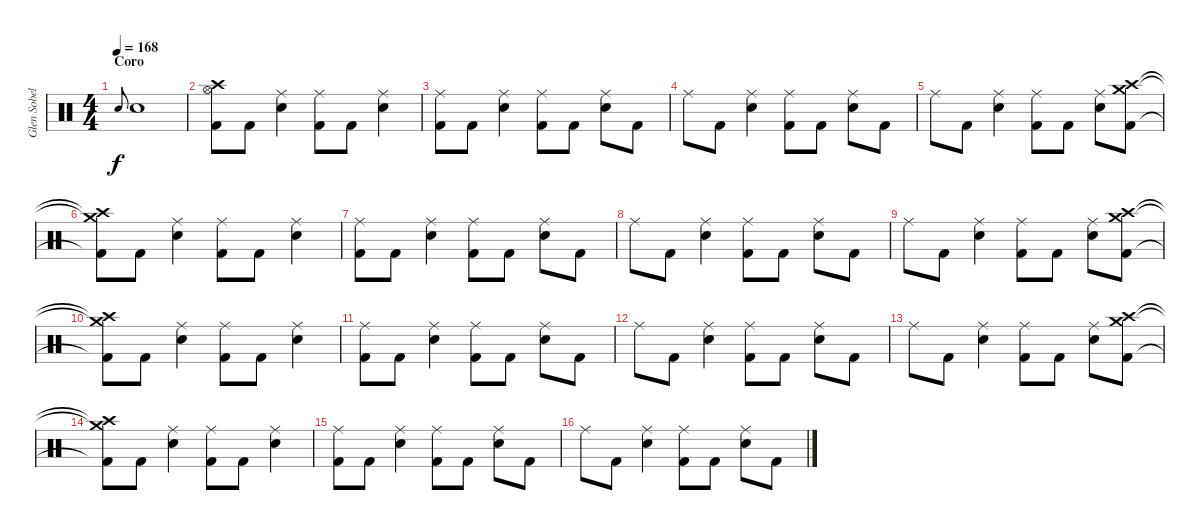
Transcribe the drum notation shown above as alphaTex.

\track ("Glen Sobel" "Glen Sobel") {instrument percussion}
\staff {score}
\articulation defaults
\ts (4 4)
\section ("" "Coro")
\tempo 168
\clef neutral
\ks c "Snare (hit) 2".8{gr onbeat dy f} "Snare (hit) 2".1
|
("Hi-Hat (open)" "Crash high (hit)" "Kick (hit) 2").8 "Kick (hit) 2".8 ("Ride (middle)" "Snare (hit) 2").4 ("Ride (middle)" "Kick (hit) 2").8 "Kick (hit) 2".8 ("Ride (middle)" "Snare (hit) 2").4 |
("Ride (middle)" "Kick (hit) 2").8 "Kick (hit) 2".8 ("Ride (middle)" "Snare (hit) 2").4 ("Ride (middle)" "Kick (hit) 2").8 "Kick (hit) 2".8 ("Ride (middle)" "Snare (hit) 2").8 "Kick (hit) 2".8 |
"Ride (middle)".8 "Kick (hit) 2".8 ("Ride (middle)" "Snare (hit) 2").4 ("Ride (middle)" "Kick (hit) 2").8 "Kick (hit) 2".8 ("Ride (middle)" "Snare (hit) 2").8 "Kick (hit) 2".8 |
"Ride (middle)".8 "Kick (hit) 2".8 ("Ride (middle)" "Snare (hit) 2").4 ("Ride (middle)" "Kick (hit) 2").8 "Kick (hit) 2".8 ("Ride (middle)" "Snare (hit) 2").8 ("Crash medium (hit)" "Crash high (hit)" "Kick (hit) 2").8 |
("Crash medium (hit)"{t} "Crash high (hit)"{t} "Kick (hit) 2"{t}).8 "Kick (hit) 2".8 ("Ride (middle)" "Snare (hit) 2").4 ("Ride (middle)" "Kick (hit) 2").8 "Kick (hit) 2".8 ("Ride (middle)" "Snare (hit) 2").4 |
("Ride (middle)" "Kick (hit) 2").8 "Kick (hit) 2".8 ("Ride (middle)" "Snare (hit) 2").4 ("Ride (middle)" "Kick (hit) 2").8 "Kick (hit) 2".8 ("Ride (middle)" "Snare (hit) 2").8 "Kick (hit) 2".8 |
"Ride (middle)".8 "Kick (hit) 2".8 ("Ride (middle)" "Snare (hit) 2").4 ("Ride (middle)" "Kick (hit) 2").8 "Kick (hit) 2".8 ("Ride (middle)" "Snare (hit) 2").8 "Kick (hit) 2".8 |
"Ride (middle)".8 "Kick (hit) 2".8 ("Ride (middle)" "Snare (hit) 2").4 ("Ride (middle)" "Kick (hit) 2").8 "Kick (hit) 2".8 ("Ride (middle)" "Snare (hit) 2").8 ("Crash medium (hit)" "Crash high (hit)" "Kick (hit) 2").8 |
("Crash medium (hit)"{t} "Crash high (hit)"{t} "Kick (hit) 2"{t}).8 "Kick (hit) 2".8 ("Ride (middle)" "Snare (hit) 2").4 ("Ride (middle)" "Kick (hit) 2").8 "Kick (hit) 2".8 ("Ride (middle)" "Snare (hit) 2").4 |
("Ride (middle)" "Kick (hit) 2").8 "Kick (hit) 2".8 ("Ride (middle)" "Snare (hit) 2").4 ("Ride (middle)" "Kick (hit) 2").8 "Kick (hit) 2".8 ("Ride (middle)" "Snare (hit) 2").8 "Kick (hit) 2".8 |
"Ride (middle)".8 "Kick (hit) 2".8 ("Ride (middle)" "Snare (hit) 2").4 ("Ride (middle)" "Kick (hit) 2").8 "Kick (hit) 2".8 ("Ride (middle)" "Snare (hit) 2").8 "Kick (hit) 2".8 |
"Ride (middle)".8 "Kick (hit) 2".8 ("Ride (middle)" "Snare (hit) 2").4 ("Ride (middle)" "Kick (hit) 2").8 "Kick (hit) 2".8 ("Ride (middle)" "Snare (hit) 2").8 ("Crash medium (hit)" "Crash high (hit)" "Kick (hit) 2").8 |
("Crash medium (hit)"{t} "Crash high (hit)"{t} "Kick (hit) 2"{t}).8 "Kick (hit) 2".8 ("Ride (middle)" "Snare (hit) 2").4 ("Ride (middle)" "Kick (hit) 2").8 "Kick (hit) 2".8 ("Ride (middle)" "Snare (hit) 2").4 |
("Ride (middle)" "Kick (hit) 2").8 "Kick (hit) 2".8 ("Ride (middle)" "Snare (hit) 2").4 ("Ride (middle)" "Kick (hit) 2").8 "Kick (hit) 2".8 ("Ride (middle)" "Snare (hit) 2").8 "Kick (hit) 2".8 |
"Ride (middle)".8 "Kick (hit) 2".8 ("Ride (middle)" "Snare (hit) 2").4 ("Ride (middle)" "Kick (hit) 2").8 "Kick (hit) 2".8 ("Ride (middle)" "Snare (hit) 2").8 "Kick (hit) 2".8
